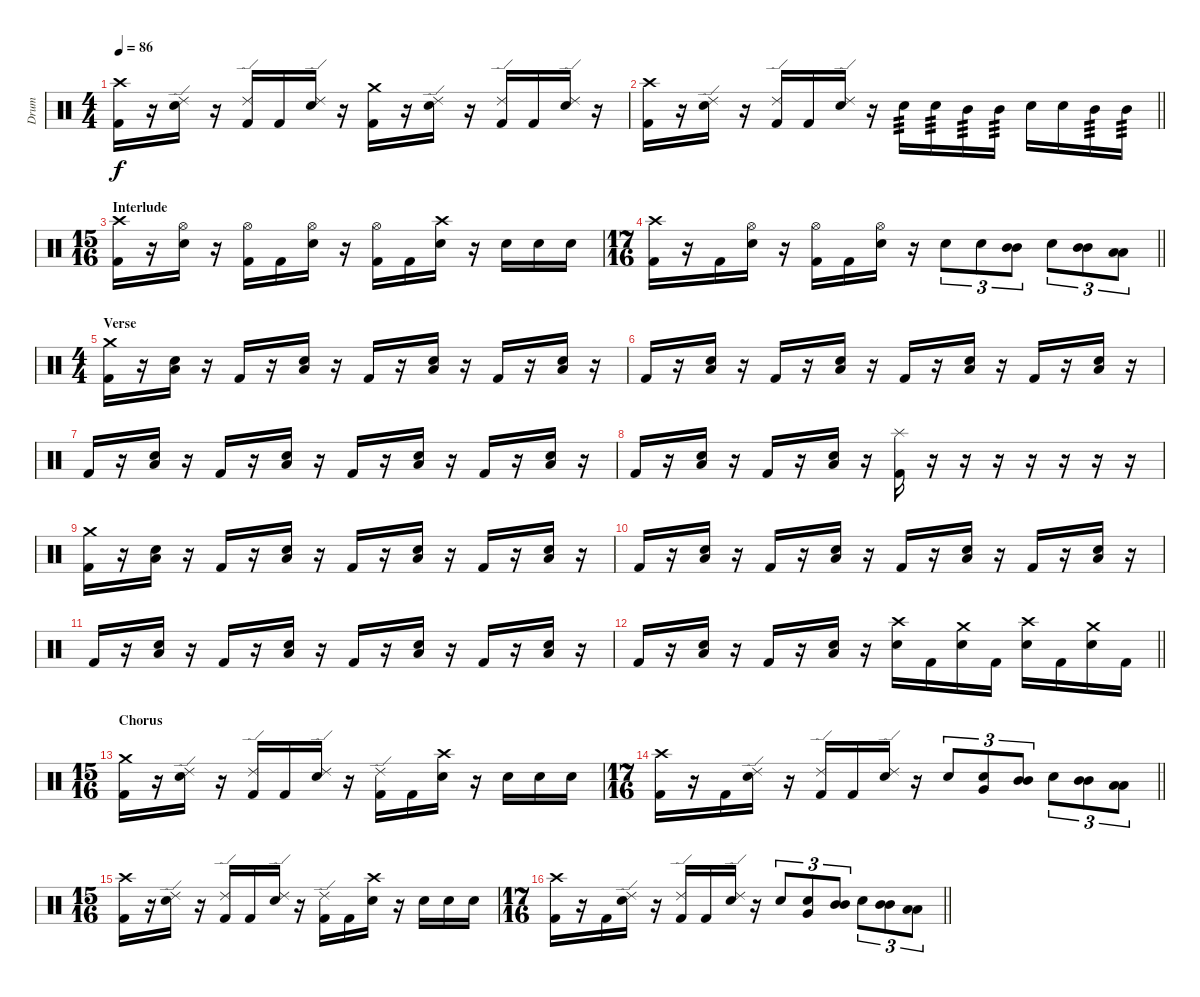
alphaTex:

\track ("Drum" "Drum") {instrument percussion}
\staff {score}
\articulation defaults
\ts (4 4)
\tempo 86
\clef neutral
\ks c
("Crash high (hit)" "Kick (hit) 2").16{dy f} r.16 ("Ride (edge) 2" "Electric Snare (hit)").16 r.16 ("Ride (edge) 2" "Kick (hit) 2").16 "Kick (hit) 2".16 ("Ride (edge) 2" "Electric Snare (hit)").16 r.16 ("Crash medium (hit)" "Kick (hit) 2").16 r.16 ("Ride (edge) 2" "Electric Snare (hit)").16 r.16 ("Ride (edge) 2" "Kick (hit) 2").16 "Kick (hit) 2".16 ("Ride (edge) 2" "Electric Snare (hit)").16 r.16 |
\barLineRight lightlight
("Crash high (hit)" "Kick (hit) 2").16 r.16 ("Ride (edge) 2" "Electric Snare (hit)").16 r.16 ("Ride (edge) 2" "Kick (hit) 2").16 "Kick (hit) 2".16 ("Ride (edge) 2" "Electric Snare (hit)").16 r.16 "Electric Snare (hit)".16{tp 3} "Electric Snare (hit)".16{tp 3} "Mid Tom (hit)".16{tp 3} "Mid Tom (hit)".16{tp 3} "Electric Snare (hit)".16 "Electric Snare (hit)".16 "Mid Tom (hit)".16{tp 3} "Mid Tom (hit)".16{tp 3} |
\ts (15 16)
\section ("" "Interlude")
("Crash high (hit)" "Kick (hit) 2").16 r.16 ("Hi-Hat (open)" "Electric Snare (hit)").16 r.16 ("Hi-Hat (open)" "Kick (hit) 2").16 "Kick (hit) 2".16 ("Hi-Hat (open)" "Electric Snare (hit)").16 r.16 ("Hi-Hat (open)" "Kick (hit) 2").16 "Kick (hit) 2".16 ("Crash high (hit)" "Electric Snare (hit)").16 r.16 "Electric Snare (hit)".16 "Electric Snare (hit)".16 "Electric Snare (hit)".16 |
\ts (17 16)
\barLineRight lightlight
("Crash high (hit)" "Kick (hit) 2").16 r.16 "Kick (hit) 2".16 ("Hi-Hat (open)" "Electric Snare (hit)").16 r.16 ("Hi-Hat (open)" "Kick (hit) 2").16 "Kick (hit) 2".16 ("Hi-Hat (open)" "Electric Snare (hit)").16 r.16 "Electric Snare (hit)".8{tu (3 2)} "Electric Snare (hit)".8{tu (3 2)} ("Mid Tom (hit)" "Mid Tom (hit)").8{tu (3 2)} "Electric Snare (hit)".8{tu (3 2)} ("Mid Tom (hit)" "Mid Tom (hit)").8{tu (3 2)} ("Low Tom (hit)" "Low Tom (hit)").8{tu (3 2)} |
\ts (4 4)
\section ("" "Verse")
("Crash medium (hit)" "Kick (hit) 2").16 r.16 ("Low Floor Tom (hit)" "Electric Snare (hit)").16{bd 60} r.16 "Kick (hit) 2".16 r.16 ("Low Floor Tom (hit)" "Electric Snare (hit)").16{bd 60} r.16 "Kick (hit) 2".16 r.16 ("Low Floor Tom (hit)" "Electric Snare (hit)").16{bd 60} r.16 "Kick (hit) 2".16 r.16 ("Low Floor Tom (hit)" "Electric Snare (hit)").16{bd 60} r.16 |
"Kick (hit) 2".16 r.16 ("Low Floor Tom (hit)" "Electric Snare (hit)").16{bd 60} r.16 "Kick (hit) 2".16 r.16 ("Low Floor Tom (hit)" "Electric Snare (hit)").16{bd 60} r.16 "Kick (hit) 2".16 r.16 ("Low Floor Tom (hit)" "Electric Snare (hit)").16{bd 60} r.16 "Kick (hit) 2".16 r.16 ("Low Floor Tom (hit)" "Electric Snare (hit)").16{bd 60} r.16 |
"Kick (hit) 2".16 r.16 ("Low Floor Tom (hit)" "Electric Snare (hit)").16{bd 60} r.16 "Kick (hit) 2".16 r.16 ("Low Floor Tom (hit)" "Electric Snare (hit)").16{bd 60} r.16 "Kick (hit) 2".16 r.16 ("Low Floor Tom (hit)" "Electric Snare (hit)").16{bd 60} r.16 "Kick (hit) 2".16 r.16 ("Low Floor Tom (hit)" "Electric Snare (hit)").16{bd 60} r.16 |
"Kick (hit) 2".16 r.16 ("Low Floor Tom (hit)" "Electric Snare (hit)").16{bd 60} r.16 "Kick (hit) 2".16 r.16 ("Low Floor Tom (hit)" "Electric Snare (hit)").16{bd 60} r.16 ("Splash (hit)" "Kick (hit) 2").16 r.16 r.16 r.16 r.16 r.16 r.16 r.16 |
("Crash medium (hit)" "Kick (hit) 2").16 r.16 ("Low Floor Tom (hit)" "Electric Snare (hit)").16{bd 60} r.16 "Kick (hit) 2".16 r.16 ("Low Floor Tom (hit)" "Electric Snare (hit)").16{bd 60} r.16 "Kick (hit) 2".16 r.16 ("Low Floor Tom (hit)" "Electric Snare (hit)").16{bd 60} r.16 "Kick (hit) 2".16 r.16 ("Low Floor Tom (hit)" "Electric Snare (hit)").16{bd 60} r.16 |
"Kick (hit) 2".16 r.16 ("Low Floor Tom (hit)" "Electric Snare (hit)").16{bd 60} r.16 "Kick (hit) 2".16 r.16 ("Low Floor Tom (hit)" "Electric Snare (hit)").16{bd 60} r.16 "Kick (hit) 2".16 r.16 ("Low Floor Tom (hit)" "Electric Snare (hit)").16{bd 60} r.16 "Kick (hit) 2".16 r.16 ("Low Floor Tom (hit)" "Electric Snare (hit)").16{bd 60} r.16 |
"Kick (hit) 2".16 r.16 ("Low Floor Tom (hit)" "Electric Snare (hit)").16{bd 60} r.16 "Kick (hit) 2".16 r.16 ("Low Floor Tom (hit)" "Electric Snare (hit)").16{bd 60} r.16 "Kick (hit) 2".16 r.16 ("Low Floor Tom (hit)" "Electric Snare (hit)").16{bd 60} r.16 "Kick (hit) 2".16 r.16 ("Low Floor Tom (hit)" "Electric Snare (hit)").16{bd 60} r.16 |
\barLineRight lightlight "Kick (hit) 2".16
r.16 ("Low Floor Tom (hit)" "Electric Snare (hit)").16{bd 60} r.16 "Kick (hit) 2".16 r.16 ("Low Floor Tom (hit)" "Electric Snare (hit)").16{bd 60} r.16 ("Crash high (hit)" "Electric Snare (hit)").16 "Kick (hit) 2".16 ("Crash medium (hit)" "Electric Snare (hit)").16 "Kick (hit) 2".16 ("Crash high (hit)" "Electric Snare (hit)").16 "Kick (hit) 2".16 ("Crash medium (hit)" "Electric Snare (hit)").16 "Kick (hit) 2".16 |
\ts (15 16)
\section ("" "Chorus")
("Crash medium (hit)" "Kick (hit) 2").16 r.16 ("Ride (edge) 2" "Electric Snare (hit)").16 r.16 ("Ride (edge) 2" "Kick (hit) 2").16 "Kick (hit) 2".16 ("Ride (edge) 2" "Electric Snare (hit)").16 r.16 ("Ride (edge) 2" "Kick (hit) 2").16 "Kick (hit) 2".16 ("Crash high (hit)" "Electric Snare (hit)").16 r.16 "Electric Snare (hit)".16 "Electric Snare (hit)".16 "Electric Snare (hit)".16 |
\ts (17 16)
\barLineRight lightlight
("Crash high (hit)" "Kick (hit) 2").16 r.16 "Kick (hit) 2".16 ("Ride (edge) 2" "Electric Snare (hit)").16 r.16 ("Ride (edge) 2" "Kick (hit) 2").16 "Kick (hit) 2".16 ("Ride (edge) 2" "Electric Snare (hit)").16 r.16 "Electric Snare (hit)".8{tu (3 2)} ("Very Low Tom (hit)" "Electric Snare (hit)").8{tu (3 2)} ("Mid Tom (hit)" "Mid Tom (hit)").8{tu (3 2)} "Electric Snare (hit)".8{tu (3 2)} ("Mid Tom (hit)" "Mid Tom (hit)").8{tu (3 2)} ("Low Tom (hit)" "Low Tom (hit)").8{tu (3 2)} |
\ts (15 16)
("Crash high (hit)" "Kick (hit) 2").16 r.16 ("Ride (edge) 2" "Electric Snare (hit)").16 r.16 ("Ride (edge) 2" "Kick (hit) 2").16 "Kick (hit) 2".16 ("Ride (edge) 2" "Electric Snare (hit)").16 r.16 ("Ride (edge) 2" "Kick (hit) 2").16 "Kick (hit) 2".16 ("Crash high (hit)" "Electric Snare (hit)").16 r.16 "Electric Snare (hit)".16 "Electric Snare (hit)".16 "Electric Snare (hit)".16 |
\ts (17 16)
\barLineRight lightlight
("Crash high (hit)" "Kick (hit) 2").16 r.16 "Kick (hit) 2".16 ("Ride (edge) 2" "Electric Snare (hit)").16 r.16 ("Ride (edge) 2" "Kick (hit) 2").16 "Kick (hit) 2".16 ("Ride (edge) 2" "Electric Snare (hit)").16 r.16 "Electric Snare (hit)".8{tu (3 2)} ("Very Low Tom (hit)" "Electric Snare (hit)").8{tu (3 2)} ("Mid Tom (hit)" "Mid Tom (hit)").8{tu (3 2)} "Electric Snare (hit)".8{tu (3 2)} ("Mid Tom (hit)" "Mid Tom (hit)").8{tu (3 2)} ("Low Tom (hit)" "Low Tom (hit)").8{tu (3 2)}
